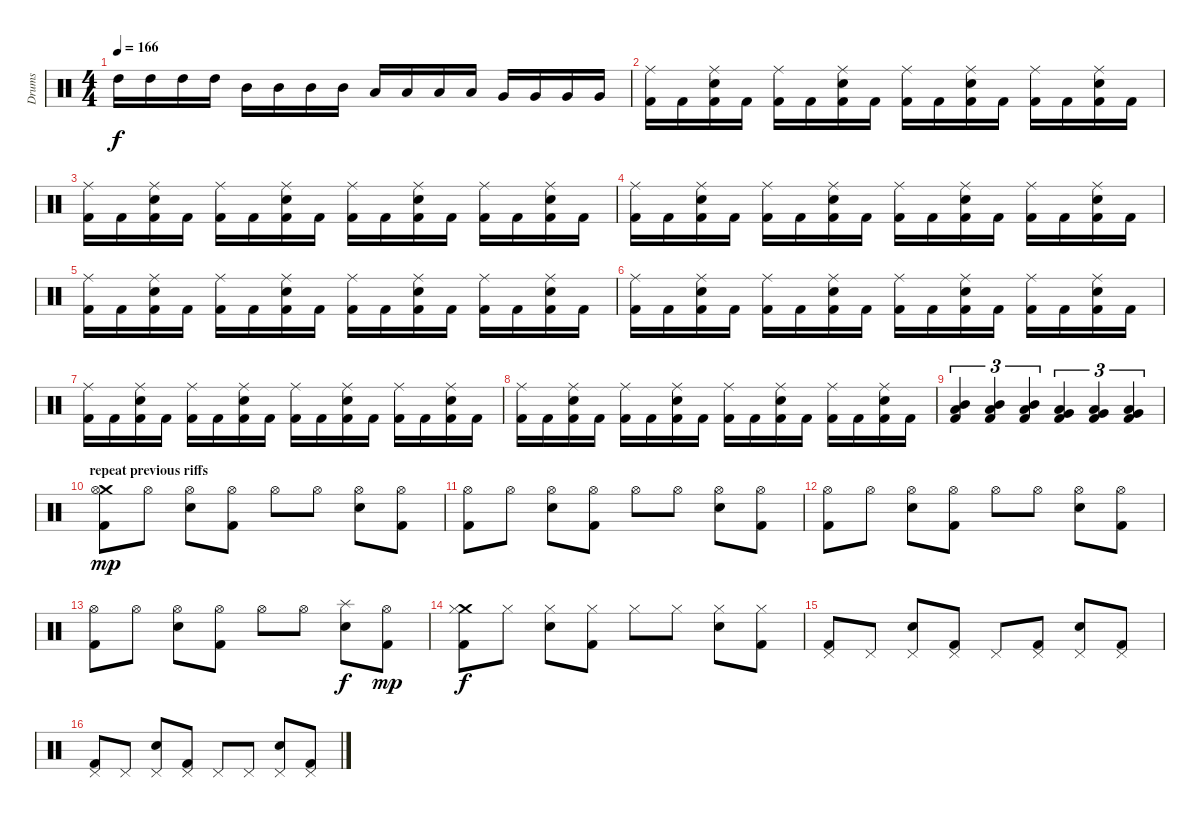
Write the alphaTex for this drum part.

\track ("Drums" "Drums") {instrument percussion}
\staff {score}
\articulation defaults
\ts (4 4)
\tempo 166
\clef neutral
\ks c "High Tom (hit)".16{dy f} "High Tom (hit)".16 "High Tom (hit)".16 "High Tom (hit)".16 "Mid Tom (hit)".16 "Mid Tom (hit)".16 "Mid Tom (hit)".16 "Mid Tom (hit)".16 "Low Tom (hit)".16 "Low Tom (hit)".16 "Low Tom (hit)".16 "Low Tom (hit)".16 "Very Low Tom (hit)".16 "Very Low Tom (hit)".16 "Very Low Tom (hit)".16 "Very Low Tom (hit)".16
|
("Ride (middle)" "Kick (hit) 2").16 "Kick (hit) 2".16 ("Ride (middle)" "Electric Snare (hit)" "Kick (hit) 2").16 "Kick (hit) 2".16 ("Ride (middle)" "Kick (hit) 2").16 "Kick (hit) 2".16 ("Ride (middle)" "Electric Snare (hit)" "Kick (hit) 2").16 "Kick (hit) 2".16 ("Ride (middle)" "Kick (hit) 2").16 "Kick (hit) 2".16 ("Ride (middle)" "Electric Snare (hit)" "Kick (hit) 2").16 "Kick (hit) 2".16 ("Ride (middle)" "Kick (hit) 2").16 "Kick (hit) 2".16 ("Ride (middle)" "Electric Snare (hit)" "Kick (hit) 2").16 "Kick (hit) 2".16 |
("Ride (middle)" "Kick (hit) 2").16 "Kick (hit) 2".16 ("Ride (middle)" "Electric Snare (hit)" "Kick (hit) 2").16 "Kick (hit) 2".16 ("Ride (middle)" "Kick (hit) 2").16 "Kick (hit) 2".16 ("Ride (middle)" "Electric Snare (hit)" "Kick (hit) 2").16 "Kick (hit) 2".16 ("Ride (middle)" "Kick (hit) 2").16 "Kick (hit) 2".16 ("Ride (middle)" "Electric Snare (hit)" "Kick (hit) 2").16 "Kick (hit) 2".16 ("Ride (middle)" "Kick (hit) 2").16 "Kick (hit) 2".16 ("Ride (middle)" "Electric Snare (hit)" "Kick (hit) 2").16 "Kick (hit) 2".16 |
("Ride (middle)" "Kick (hit) 2").16 "Kick (hit) 2".16 ("Ride (middle)" "Electric Snare (hit)" "Kick (hit) 2").16 "Kick (hit) 2".16 ("Ride (middle)" "Kick (hit) 2").16 "Kick (hit) 2".16 ("Ride (middle)" "Electric Snare (hit)" "Kick (hit) 2").16 "Kick (hit) 2".16 ("Ride (middle)" "Kick (hit) 2").16 "Kick (hit) 2".16 ("Ride (middle)" "Electric Snare (hit)" "Kick (hit) 2").16 "Kick (hit) 2".16 ("Ride (middle)" "Kick (hit) 2").16 "Kick (hit) 2".16 ("Ride (middle)" "Electric Snare (hit)" "Kick (hit) 2").16 "Kick (hit) 2".16 |
("Ride (middle)" "Kick (hit) 2").16 "Kick (hit) 2".16 ("Ride (middle)" "Electric Snare (hit)" "Kick (hit) 2").16 "Kick (hit) 2".16 ("Ride (middle)" "Kick (hit) 2").16 "Kick (hit) 2".16 ("Ride (middle)" "Electric Snare (hit)" "Kick (hit) 2").16 "Kick (hit) 2".16 ("Ride (middle)" "Kick (hit) 2").16 "Kick (hit) 2".16 ("Ride (middle)" "Electric Snare (hit)" "Kick (hit) 2").16 "Kick (hit) 2".16 ("Ride (middle)" "Kick (hit) 2").16 "Kick (hit) 2".16 ("Ride (middle)" "Electric Snare (hit)" "Kick (hit) 2").16 "Kick (hit) 2".16 |
("Ride (middle)" "Kick (hit) 2").16 "Kick (hit) 2".16 ("Ride (middle)" "Electric Snare (hit)" "Kick (hit) 2").16 "Kick (hit) 2".16 ("Ride (middle)" "Kick (hit) 2").16 "Kick (hit) 2".16 ("Ride (middle)" "Electric Snare (hit)" "Kick (hit) 2").16 "Kick (hit) 2".16 ("Ride (middle)" "Kick (hit) 2").16 "Kick (hit) 2".16 ("Ride (middle)" "Electric Snare (hit)" "Kick (hit) 2").16 "Kick (hit) 2".16 ("Ride (middle)" "Kick (hit) 2").16 "Kick (hit) 2".16 ("Ride (middle)" "Electric Snare (hit)" "Kick (hit) 2").16 "Kick (hit) 2".16 |
("Ride (middle)" "Kick (hit) 2").16 "Kick (hit) 2".16 ("Ride (middle)" "Electric Snare (hit)" "Kick (hit) 2").16 "Kick (hit) 2".16 ("Ride (middle)" "Kick (hit) 2").16 "Kick (hit) 2".16 ("Ride (middle)" "Electric Snare (hit)" "Kick (hit) 2").16 "Kick (hit) 2".16 ("Ride (middle)" "Kick (hit) 2").16 "Kick (hit) 2".16 ("Ride (middle)" "Electric Snare (hit)" "Kick (hit) 2").16 "Kick (hit) 2".16 ("Ride (middle)" "Kick (hit) 2").16 "Kick (hit) 2".16 ("Ride (middle)" "Electric Snare (hit)" "Kick (hit) 2").16 "Kick (hit) 2".16 |
("Ride (middle)" "Kick (hit) 2").16 "Kick (hit) 2".16 ("Ride (middle)" "Electric Snare (hit)" "Kick (hit) 2").16 "Kick (hit) 2".16 ("Ride (middle)" "Kick (hit) 2").16 "Kick (hit) 2".16 ("Ride (middle)" "Electric Snare (hit)" "Kick (hit) 2").16 "Kick (hit) 2".16 ("Ride (middle)" "Kick (hit) 2").16 "Kick (hit) 2".16 ("Ride (middle)" "Electric Snare (hit)" "Kick (hit) 2").16 "Kick (hit) 2".16 ("Ride (middle)" "Kick (hit) 2").16 "Kick (hit) 2".16 ("Ride (middle)" "Electric Snare (hit)" "Kick (hit) 2").16 "Kick (hit) 2".16 |
("Mid Tom (hit)" "Low Tom (hit)" "Kick (hit) 2").4{tu (3 2)} ("Mid Tom (hit)" "Low Tom (hit)" "Kick (hit) 2").4{tu (3 2)} ("Mid Tom (hit)" "Low Tom (hit)" "Kick (hit) 2").4{tu (3 2)} ("Low Tom (hit)" "Very Low Tom (hit)" "Kick (hit) 2").4{tu (3 2)} ("Low Tom (hit)" "Very Low Tom (hit)" "Kick (hit) 2").4{tu (3 2)} ("Low Tom (hit)" "Very Low Tom (hit)" "Kick (hit) 2").4{tu (3 2)} |
\section ("" "repeat previous riffs")
("Crash medium (hit)" "Hi-Hat (open)" "Kick (hit) 2").8{dy mp} "Hi-Hat (open)".8 ("Hi-Hat (open)" "Electric Snare (hit)").8 ("Hi-Hat (open)" "Kick (hit) 2").8 "Hi-Hat (open)".8 "Hi-Hat (open)".8 ("Hi-Hat (open)" "Electric Snare (hit)").8 ("Hi-Hat (open)" "Kick (hit) 2").8 |
("Hi-Hat (open)" "Kick (hit) 2").8 "Hi-Hat (open)".8 ("Hi-Hat (open)" "Electric Snare (hit)").8 ("Hi-Hat (open)" "Kick (hit) 2").8 "Hi-Hat (open)".8 "Hi-Hat (open)".8 ("Hi-Hat (open)" "Electric Snare (hit)").8 ("Hi-Hat (open)" "Kick (hit) 2").8 |
("Hi-Hat (open)" "Kick (hit) 2").8 "Hi-Hat (open)".8 ("Hi-Hat (open)" "Electric Snare (hit)").8 ("Hi-Hat (open)" "Kick (hit) 2").8 "Hi-Hat (open)".8 "Hi-Hat (open)".8 ("Hi-Hat (open)" "Electric Snare (hit)").8 ("Hi-Hat (open)" "Kick (hit) 2").8 |
("Hi-Hat (open)" "Kick (hit) 2").8 "Hi-Hat (open)".8 ("Hi-Hat (open)" "Electric Snare (hit)").8 ("Hi-Hat (open)" "Kick (hit) 2").8 "Hi-Hat (open)".8 "Hi-Hat (open)".8 ("Splash (hit)" "Electric Snare (hit)").8{dy f} ("Hi-Hat (open)" "Kick (hit) 2").8{dy mp} |
("Crash medium (hit)" "Hi-Hat (closed)" "Kick (hit) 2").8{dy f} "Hi-Hat (closed)".8 ("Hi-Hat (closed)" "Electric Snare (hit)").8 ("Hi-Hat (closed)" "Kick (hit) 2").8 "Hi-Hat (closed)".8 "Hi-Hat (closed)".8 ("Hi-Hat (closed)" "Electric Snare (hit)").8 ("Hi-Hat (closed)" "Kick (hit) 2").8 |
("Pedal Hi-Hat (hit)" "Kick (hit) 2").8 "Pedal Hi-Hat (hit)".8 ("Pedal Hi-Hat (hit)" "Electric Snare (hit)").8 ("Pedal Hi-Hat (hit)" "Kick (hit) 2").8 "Pedal Hi-Hat (hit)".8 ("Pedal Hi-Hat (hit)" "Kick (hit) 2").8 ("Pedal Hi-Hat (hit)" "Electric Snare (hit)").8 ("Pedal Hi-Hat (hit)" "Kick (hit) 2").8 |
("Pedal Hi-Hat (hit)" "Kick (hit) 2").8 "Pedal Hi-Hat (hit)".8 ("Pedal Hi-Hat (hit)" "Electric Snare (hit)").8 ("Pedal Hi-Hat (hit)" "Kick (hit) 2").8 "Pedal Hi-Hat (hit)".8 "Pedal Hi-Hat (hit)".8 ("Pedal Hi-Hat (hit)" "Electric Snare (hit)").8 ("Pedal Hi-Hat (hit)" "Kick (hit) 2").8
